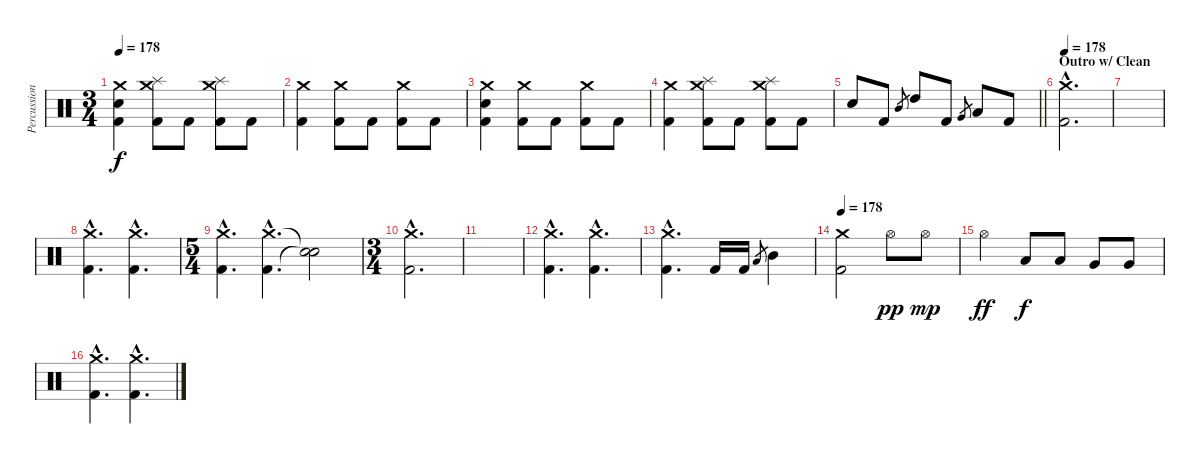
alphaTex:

\track ("Percussion" "Percussion") {instrument percussion}
\staff {score}
\articulation defaults
\ts (3 4)
\tempo 178
\clef neutral
\ks c
("Crash medium (hit)" "Electric Snare (hit)" "Kick (hit) 2").4{dy f} ("Crash medium (hit)" "Splash (hit)" "Kick (hit) 2").8 "Kick (hit) 2".8 ("Crash medium (hit)" "Splash (hit)" "Kick (hit) 2").8 "Kick (hit) 2".8 |
("Crash medium (hit)" "Kick (hit) 2").4 ("Crash medium (hit)" "Kick (hit) 2").8 "Kick (hit) 2".8 ("Crash medium (hit)" "Kick (hit) 2").8 "Kick (hit) 2".8 |
("Crash medium (hit)" "Electric Snare (hit)" "Kick (hit) 2").4 ("Crash medium (hit)" "Kick (hit) 2").8 "Kick (hit) 2".8 ("Crash medium (hit)" "Kick (hit) 2").8 "Kick (hit) 2".8 |
("Crash medium (hit)" "Kick (hit) 2").4 ("Crash medium (hit)" "Splash (hit)" "Kick (hit) 2").8 "Kick (hit) 2".8 ("Crash medium (hit)" "Splash (hit)" "Kick (hit) 2").8 "Kick (hit) 2".8 |
\barLineRight lightlight "Electric Snare (hit)".8 "Kick (hit) 2".8 "Mid Tom (hit)".8{gr} "High Tom (hit)".8 "Kick (hit) 2".8 "Very Low Tom (hit)".8{gr} "Low Tom (hit)".8 "Kick (hit) 2".8
|
\section ("" "Outro w/ Clean")
\tempo 178
("Crash medium (hit)"{hac} "Kick (hit) 2"{hac}).2{d} |
|
("Crash medium (hit)"{hac} "Kick (hit) 2"{hac}).4{d} ("Crash medium (hit)"{hac} "Kick (hit) 2"{hac}).4{d} |
\ts (5 4)
("Crash medium (hit)"{hac} "Kick (hit) 2"{hac}).4{d} ("Crash medium (hit)"{hac} "Kick (hit) 2"{hac}).4{d} ("Snare (hit)"{t} "Snare (hit)"{t}).2 |
\ts (3 4)
("Crash medium (hit)"{hac} "Kick (hit) 2"{hac}).2{d} |
|
("Crash medium (hit)"{hac} "Kick (hit) 2"{hac}).4{d} ("Crash medium (hit)"{hac} "Kick (hit) 2"{hac}).4{d} |
("Crash medium (hit)"{hac} "Kick (hit) 2"{hac}).4{d} "Kick (hit) 2".16 "Kick (hit) 2".16 "Low Tom (hit)".8{gr} "Mid Tom (hit)".4 |
\tempo 178
("Crash medium (hit)" "Kick (hit) 2").2 "Hi-Hat (open)".8{dy pp} "Hi-Hat (open)".8{dy mp} |
"Hi-Hat (open)".4{dy ff} "Low Tom (hit)".8{dy f} "Low Tom (hit)".8 "Very Low Tom (hit)".8 "Very Low Tom (hit)".8 |
("Crash medium (hit)"{hac} "Kick (hit) 2"{hac}).4{d} ("Crash medium (hit)"{hac} "Kick (hit) 2"{hac}).4{d}
